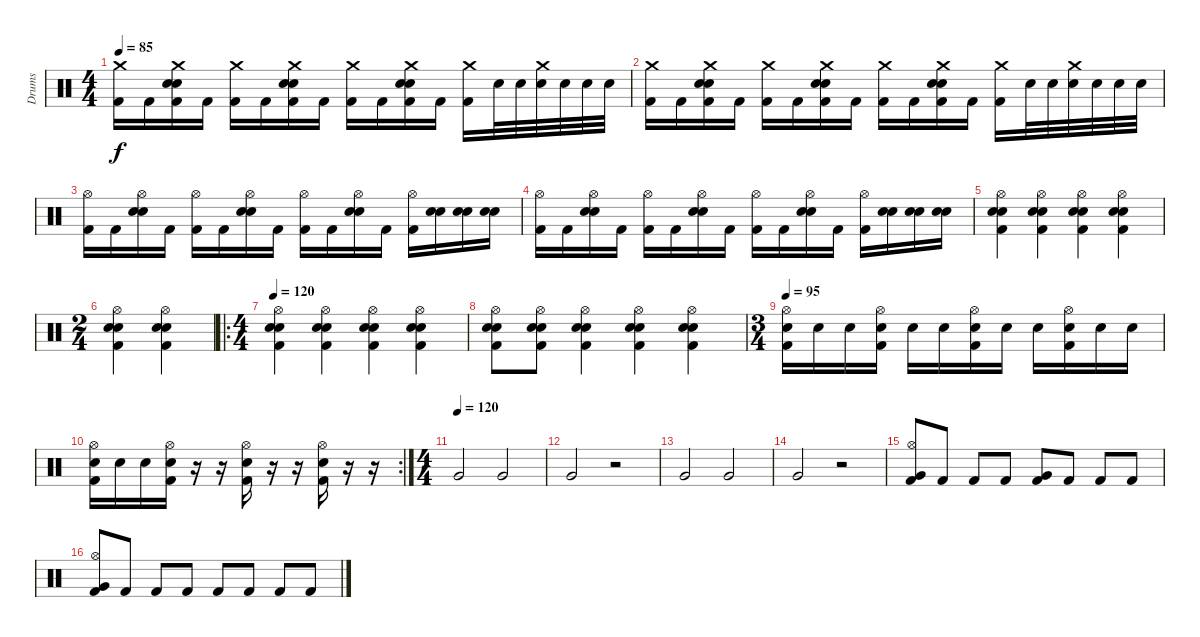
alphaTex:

\track ("Drums" "Drums") {instrument percussion}
\staff {score}
\articulation defaults
\ts (4 4)
\tempo 85
\clef neutral
\ks c
("Crash medium (hit)" "Kick (hit) 2").16{dy f} "Kick (hit) 2".16 ("Crash medium (hit)" "Electric Snare (hit)" "Electric Snare (hit)" "Kick (hit) 2").16 "Kick (hit) 2".16 ("Crash medium (hit)" "Kick (hit) 2").16 "Kick (hit) 2".16 ("Crash medium (hit)" "Electric Snare (hit)" "Electric Snare (hit)" "Kick (hit) 2").16 "Kick (hit) 2".16 ("Crash medium (hit)" "Kick (hit) 2").16 "Kick (hit) 2".16 ("Crash medium (hit)" "Electric Snare (hit)" "Electric Snare (hit)" "Kick (hit) 2").16 "Kick (hit) 2".16 ("Crash medium (hit)" "Kick (hit) 2").16 "Electric Snare (hit)".32 "Electric Snare (hit)".32 ("Crash medium (hit)" "Electric Snare (hit)").32 "Electric Snare (hit)".32 "Electric Snare (hit)".32 "Electric Snare (hit)".32 |
("Crash medium (hit)" "Kick (hit) 2").16 "Kick (hit) 2".16 ("Crash medium (hit)" "Electric Snare (hit)" "Electric Snare (hit)" "Kick (hit) 2").16 "Kick (hit) 2".16 ("Crash medium (hit)" "Kick (hit) 2").16 "Kick (hit) 2".16 ("Crash medium (hit)" "Electric Snare (hit)" "Electric Snare (hit)" "Kick (hit) 2").16 "Kick (hit) 2".16 ("Crash medium (hit)" "Kick (hit) 2").16 "Kick (hit) 2".16 ("Crash medium (hit)" "Electric Snare (hit)" "Electric Snare (hit)" "Kick (hit) 2").16 "Kick (hit) 2".16 ("Crash medium (hit)" "Kick (hit) 2").16 "Electric Snare (hit)".32 "Electric Snare (hit)".32 ("Crash medium (hit)" "Electric Snare (hit)").32 "Electric Snare (hit)".32 "Electric Snare (hit)".32 "Electric Snare (hit)".32 |
("Hi-Hat (open)" "Kick (hit) 2").16 "Kick (hit) 2".16 ("Hi-Hat (open)" "Electric Snare (hit)" "Electric Snare (hit)").16 "Kick (hit) 2".16 ("Hi-Hat (open)" "Kick (hit) 2").16 "Kick (hit) 2".16 ("Hi-Hat (open)" "Electric Snare (hit)" "Electric Snare (hit)").16 "Kick (hit) 2".16 ("Hi-Hat (open)" "Kick (hit) 2").16 "Kick (hit) 2".16 ("Hi-Hat (open)" "Electric Snare (hit)" "Electric Snare (hit)").16 "Kick (hit) 2".16 ("Hi-Hat (open)" "Kick (hit) 2").16 ("Electric Snare (hit)" "Electric Snare (hit)").16 ("Electric Snare (hit)" "Electric Snare (hit)").16 ("Electric Snare (hit)" "Electric Snare (hit)").16 |
("Hi-Hat (open)" "Kick (hit) 2").16 "Kick (hit) 2".16 ("Hi-Hat (open)" "Electric Snare (hit)" "Electric Snare (hit)").16 "Kick (hit) 2".16 ("Hi-Hat (open)" "Kick (hit) 2").16 "Kick (hit) 2".16 ("Hi-Hat (open)" "Electric Snare (hit)" "Electric Snare (hit)").16 "Kick (hit) 2".16 ("Hi-Hat (open)" "Kick (hit) 2").16 "Kick (hit) 2".16 ("Hi-Hat (open)" "Electric Snare (hit)" "Electric Snare (hit)").16 "Kick (hit) 2".16 ("Hi-Hat (open)" "Kick (hit) 2").16 ("Electric Snare (hit)" "Electric Snare (hit)").16 ("Electric Snare (hit)" "Electric Snare (hit)").16 ("Electric Snare (hit)" "Electric Snare (hit)").16 |
("Hi-Hat (open)" "Electric Snare (hit)" "Electric Snare (hit)" "Kick (hit) 2").4 ("Hi-Hat (open)" "Electric Snare (hit)" "Electric Snare (hit)" "Kick (hit) 2").4 ("Hi-Hat (open)" "Electric Snare (hit)" "Electric Snare (hit)" "Kick (hit) 2").4 ("Hi-Hat (open)" "Electric Snare (hit)" "Electric Snare (hit)" "Kick (hit) 2").4 |
\ts (2 4)
("Hi-Hat (open)" "Electric Snare (hit)" "Electric Snare (hit)" "Kick (hit) 2").4 ("Hi-Hat (open)" "Electric Snare (hit)" "Electric Snare (hit)" "Kick (hit) 2").4 |
\ro
\ts (4 4)
\tempo 120
("Hi-Hat (open)" "Electric Snare (hit)" "Electric Snare (hit)" "Kick (hit) 2").4 ("Hi-Hat (open)" "Electric Snare (hit)" "Electric Snare (hit)" "Kick (hit) 2").4 ("Hi-Hat (open)" "Electric Snare (hit)" "Electric Snare (hit)" "Kick (hit) 2").4 ("Hi-Hat (open)" "Electric Snare (hit)" "Electric Snare (hit)" "Kick (hit) 2").4 |
("Hi-Hat (open)" "Electric Snare (hit)" "Electric Snare (hit)" "Kick (hit) 2").8 ("Hi-Hat (open)" "Electric Snare (hit)" "Electric Snare (hit)" "Kick (hit) 2").8 ("Hi-Hat (open)" "Electric Snare (hit)" "Electric Snare (hit)" "Kick (hit) 2").4 ("Hi-Hat (open)" "Electric Snare (hit)" "Electric Snare (hit)" "Kick (hit) 2").4 ("Hi-Hat (open)" "Electric Snare (hit)" "Electric Snare (hit)" "Kick (hit) 2").4 |
\ts (3 4)
\tempo 95
("Hi-Hat (open)" "Electric Snare (hit)" "Kick (hit) 2").16 "Electric Snare (hit)".16 "Electric Snare (hit)".16 ("Hi-Hat (open)" "Electric Snare (hit)" "Kick (hit) 2").16 "Electric Snare (hit)".16 "Electric Snare (hit)".16 ("Hi-Hat (open)" "Electric Snare (hit)" "Kick (hit) 2").16 "Electric Snare (hit)".16 "Electric Snare (hit)".16 ("Hi-Hat (open)" "Electric Snare (hit)" "Kick (hit) 2").16 "Electric Snare (hit)".16 "Electric Snare (hit)".16 |
\rc 2
("Hi-Hat (open)" "Electric Snare (hit)" "Kick (hit) 2").16 "Electric Snare (hit)".16 "Electric Snare (hit)".16 ("Hi-Hat (open)" "Electric Snare (hit)" "Kick (hit) 2").16 r.16 r.16 ("Hi-Hat (open)" "Electric Snare (hit)" "Kick (hit) 2").16 r.16 r.16 ("Hi-Hat (open)" "Electric Snare (hit)" "Kick (hit) 2").16 r.16 r.16 |
\ts (4 4)
\tempo (120)
"Very Low Tom (hit)".2 "Very Low Tom (hit)".2 |
"Very Low Tom (hit)".2 r.2 |
"Very Low Tom (hit)".2 "Very Low Tom (hit)".2 |
"Very Low Tom (hit)".2 r.2 |
("Hi-Hat (open)" "Very Low Tom (hit)" "Kick (hit) 2").8 "Kick (hit) 2".8 "Kick (hit) 2".8 "Kick (hit) 2".8 ("Very Low Tom (hit)" "Kick (hit) 2").8 "Kick (hit) 2".8 "Kick (hit) 2".8 "Kick (hit) 2".8 |
("Hi-Hat (open)" "Very Low Tom (hit)" "Kick (hit) 2").8 "Kick (hit) 2".8 "Kick (hit) 2".8 "Kick (hit) 2".8 "Kick (hit) 2".8 "Kick (hit) 2".8 "Kick (hit) 2".8 "Kick (hit) 2".8
